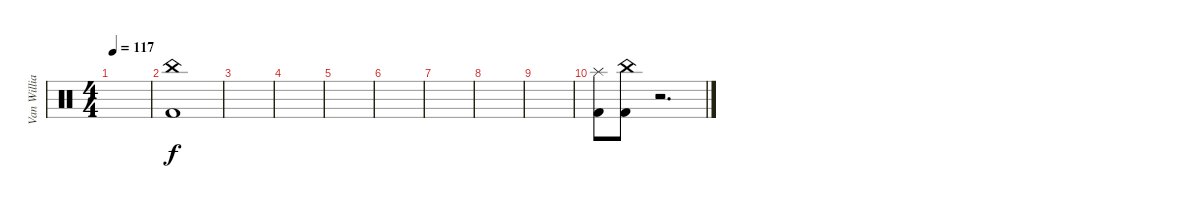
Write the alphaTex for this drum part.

\track ("Van Williams" "Van Willia") {instrument percussion}
\staff {score}
\articulation defaults
\ts (4 4)
\tempo 117
\clef neutral
\ks c
|
("China (hit)" "Kick (hit) 2").1 |
|
|
|
|
|
|
|
("Splash (hit)" "Kick (hit) 2").8 ("China (hit)" "Kick (hit) 2").8 r.2{d}
